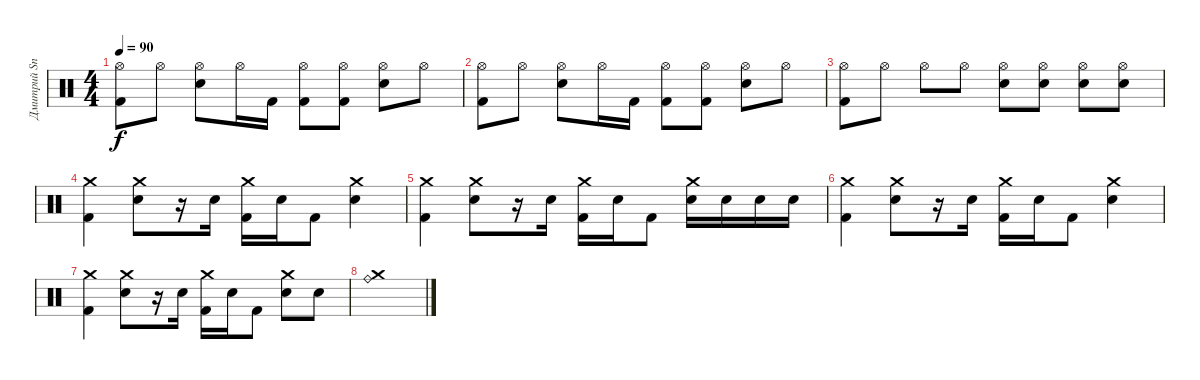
\track ("Дмитрий Snake Хакимов" "Дмитрий Sn") {instrument percussion}
\staff {score}
\articulation defaults
\ts (4 4)
\tempo 90
\clef neutral
\ks c
("Hi-Hat (open)" "Kick (hit) 2").8{dy f} "Hi-Hat (open)".8 ("Hi-Hat (open)" "Electric Snare (hit)").8 "Hi-Hat (open)".16 "Kick (hit) 2".16 ("Hi-Hat (open)" "Kick (hit) 2").8 ("Hi-Hat (open)" "Kick (hit) 2").8 ("Hi-Hat (open)" "Electric Snare (hit)").8 "Hi-Hat (open)".8 |
("Hi-Hat (open)" "Kick (hit) 2").8 "Hi-Hat (open)".8 ("Hi-Hat (open)" "Electric Snare (hit)").8 "Hi-Hat (open)".16 "Kick (hit) 2".16 ("Hi-Hat (open)" "Kick (hit) 2").8 ("Hi-Hat (open)" "Kick (hit) 2").8 ("Hi-Hat (open)" "Electric Snare (hit)").8 "Hi-Hat (open)".8 |
("Hi-Hat (open)" "Kick (hit) 2").8 "Hi-Hat (open)".8 "Hi-Hat (open)".8 "Hi-Hat (open)".8 ("Hi-Hat (open)" "Electric Snare (hit)").8 ("Hi-Hat (open)" "Electric Snare (hit)").8 ("Hi-Hat (open)" "Electric Snare (hit)").8 ("Hi-Hat (open)" "Electric Snare (hit)").8 |
("Crash medium (hit)" "Kick (hit) 2").4 ("Crash medium (hit)" "Electric Snare (hit)").8 r.16 "Electric Snare (hit)".16 ("Crash medium (hit)" "Kick (hit) 2").16 "Electric Snare (hit)".16 "Kick (hit) 2".8 ("Crash medium (hit)" "Electric Snare (hit)").4 |
("Crash medium (hit)" "Kick (hit) 2").4 ("Crash medium (hit)" "Electric Snare (hit)").8 r.16 "Electric Snare (hit)".16 ("Crash medium (hit)" "Kick (hit) 2").16 "Electric Snare (hit)".16 "Kick (hit) 2".8 ("Crash medium (hit)" "Electric Snare (hit)").16 "Electric Snare (hit)".16 "Electric Snare (hit)".16 "Electric Snare (hit)".16 |
("Crash medium (hit)" "Kick (hit) 2").4 ("Crash medium (hit)" "Electric Snare (hit)").8 r.16 "Electric Snare (hit)".16 ("Crash medium (hit)" "Kick (hit) 2").16 "Electric Snare (hit)".16 "Kick (hit) 2".8 ("Crash medium (hit)" "Electric Snare (hit)").4 |
("Crash medium (hit)" "Kick (hit) 2").4 ("Crash medium (hit)" "Electric Snare (hit)").8 r.16 "Electric Snare (hit)".16 ("Crash medium (hit)" "Kick (hit) 2").16 "Electric Snare (hit)".16 "Kick (hit) 2".8 ("Crash medium (hit)" "Electric Snare (hit)").8 "Electric Snare (hit)".8 |
("Crash medium (hit)" "Ride (bell)").1
